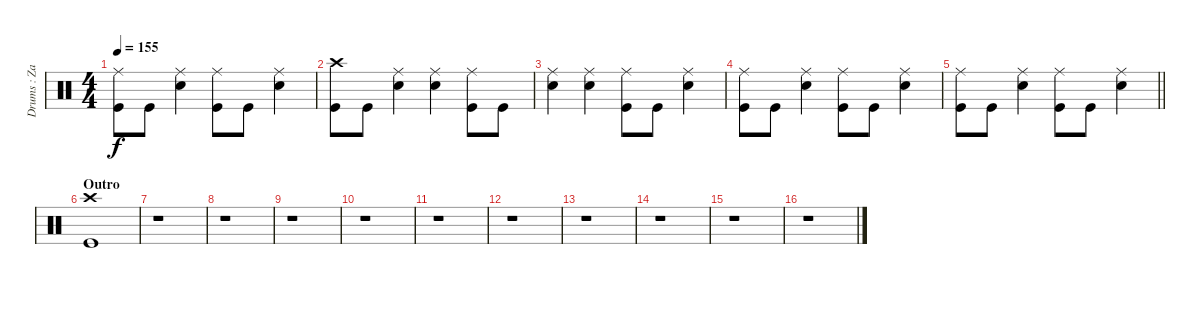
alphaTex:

\track ("Drums : Zach Lind" "Drums : Za") {instrument percussion}
\staff {score}
\articulation defaults
\ts (4 4)
\tempo 155
\clef neutral
\ks c
("Ride (middle)" "Kick (hit)").8{dy f} "Kick (hit)".8 ("Ride (middle)" "Snare (hit) 2").4 ("Ride (middle)" "Kick (hit)").8 "Kick (hit)".8 ("Ride (middle)" "Snare (hit) 2").4 |
("Crash high (hit)" "Kick (hit)").8 "Kick (hit)".8 ("Ride (middle)" "Snare (hit) 2").4 ("Ride (middle)" "Snare (hit) 2").4 ("Ride (middle)" "Kick (hit)").8 "Kick (hit)".8 |
("Ride (middle)" "Snare (hit) 2").4 ("Ride (middle)" "Snare (hit) 2").4 ("Ride (middle)" "Kick (hit)").8 "Kick (hit)".8 ("Ride (middle)" "Snare (hit) 2").4 |
("Ride (middle)" "Kick (hit)").8 "Kick (hit)".8 ("Ride (middle)" "Snare (hit) 2").4 ("Ride (middle)" "Kick (hit)").8 "Kick (hit)".8 ("Ride (middle)" "Snare (hit) 2").4 |
\barLineRight lightlight
("Ride (middle)" "Kick (hit)").8 "Kick (hit)".8 ("Ride (middle)" "Snare (hit) 2").4 ("Ride (middle)" "Kick (hit)").8 "Kick (hit)".8 ("Ride (middle)" "Snare (hit) 2").4 |
\section ("" "Outro")
("Crash high (hit)" "Kick (hit)").1 |
r.1 |
r.1 |
r.1 |
r.1 |
r.1 |
r.1 |
r.1 |
r.1 |
r.1 |
r.1
